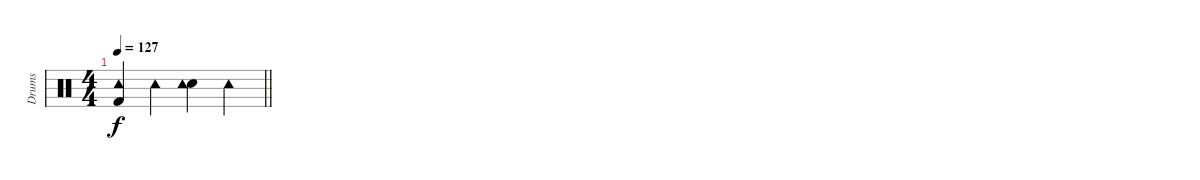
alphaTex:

\track ("Drums" "Drums") {instrument percussion}
\staff {score}
\articulation defaults
\ts (4 4)
\tempo 127
\clef neutral
\barLineRight lightlight
\ks c
("Kick (hit) 2" "Tambourine (hit)").4{dy f} "Tambourine (hit)".4 ("Snare (hit) 2" "Tambourine (hit)").4 "Tambourine (hit)".4
